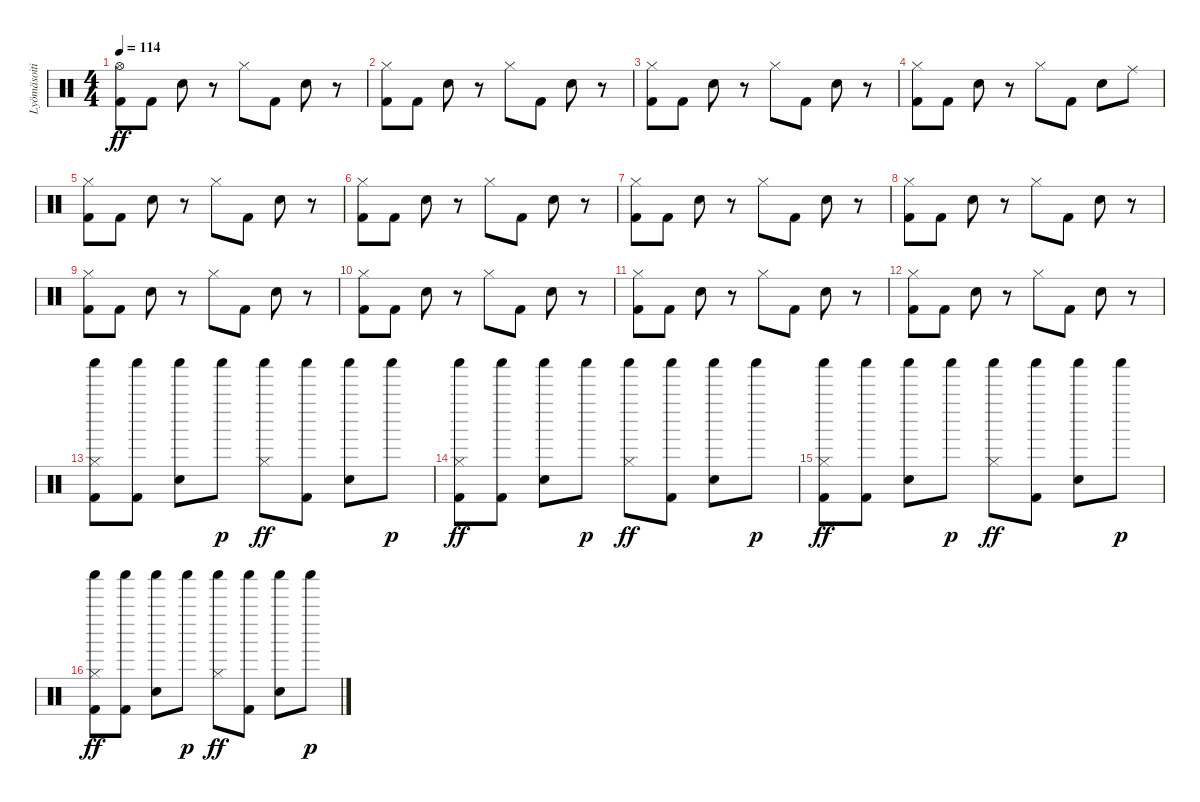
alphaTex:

\track ("Lyömäsoitin" "Lyömäsoiti") {instrument percussion}
\staff {score}
\articulation defaults
\ts (4 4)
\tempo 114
\clef neutral
\ks c
("Hi-Hat (open)" "Kick (hit) 2").8{dy ff} "Kick (hit) 2".8 "Electric Snare (hit)".8 r.8 "Hi-Hat (closed)".8 "Kick (hit) 2".8 "Electric Snare (hit)".8 r.8 |
("Hi-Hat (closed)" "Kick (hit) 2").8 "Kick (hit) 2".8 "Electric Snare (hit)".8 r.8 "Hi-Hat (closed)".8 "Kick (hit) 2".8 "Electric Snare (hit)".8 r.8 |
("Hi-Hat (closed)" "Kick (hit) 2").8 "Kick (hit) 2".8 "Electric Snare (hit)".8 r.8 "Hi-Hat (closed)".8 "Kick (hit) 2".8 "Electric Snare (hit)".8 r.8 |
("Hi-Hat (closed)" "Kick (hit) 2").8 "Kick (hit) 2".8 "Electric Snare (hit)".8 r.8 "Hi-Hat (closed)".8 "Kick (hit) 2".8 "Electric Snare (hit)".8 "Ride (middle)".8 |
("Hi-Hat (closed)" "Kick (hit) 2").8 "Kick (hit) 2".8 "Electric Snare (hit)".8 r.8 "Hi-Hat (closed)".8 "Kick (hit) 2".8 "Electric Snare (hit)".8 r.8 |
("Hi-Hat (closed)" "Kick (hit) 2").8 "Kick (hit) 2".8 "Electric Snare (hit)".8 r.8 "Hi-Hat (closed)".8 "Kick (hit) 2".8 "Electric Snare (hit)".8 r.8 |
("Hi-Hat (closed)" "Kick (hit) 2").8 "Kick (hit) 2".8 "Electric Snare (hit)".8 r.8 "Hi-Hat (closed)".8 "Kick (hit) 2".8 "Electric Snare (hit)".8 r.8 |
("Hi-Hat (closed)" "Kick (hit) 2").8 "Kick (hit) 2".8 "Electric Snare (hit)".8 r.8 "Hi-Hat (closed)".8 "Kick (hit) 2".8 "Electric Snare (hit)".8 r.8 |
("Hi-Hat (closed)" "Kick (hit) 2").8 "Kick (hit) 2".8 "Electric Snare (hit)".8 r.8 "Hi-Hat (closed)".8 "Kick (hit) 2".8 "Electric Snare (hit)".8 r.8 |
("Hi-Hat (closed)" "Kick (hit) 2").8 "Kick (hit) 2".8 "Electric Snare (hit)".8 r.8 "Hi-Hat (closed)".8 "Kick (hit) 2".8 "Electric Snare (hit)".8 r.8 |
("Hi-Hat (closed)" "Kick (hit) 2").8 "Kick (hit) 2".8 "Electric Snare (hit)".8 r.8 "Hi-Hat (closed)".8 "Kick (hit) 2".8 "Electric Snare (hit)".8 r.8 |
("Hi-Hat (closed)" "Kick (hit) 2").8 "Kick (hit) 2".8 "Electric Snare (hit)".8 r.8 "Hi-Hat (closed)".8 "Kick (hit) 2".8 "Electric Snare (hit)".8 r.8 |
("Shaker (hit)" "Hi-Hat (closed)" "Kick (hit) 2").8 ("Shaker (hit)" "Kick (hit) 2").8 ("Shaker (hit)" "Electric Snare (hit)").8 "Shaker (hit)".8{dy p} ("Shaker (hit)" "Hi-Hat (closed)").8{dy ff} ("Shaker (hit)" "Kick (hit) 2").8 ("Shaker (hit)" "Electric Snare (hit)").8 "Shaker (hit)".8{dy p} |
("Shaker (hit)" "Hi-Hat (closed)" "Kick (hit) 2").8{dy ff} ("Shaker (hit)" "Kick (hit) 2").8 ("Shaker (hit)" "Electric Snare (hit)").8 "Shaker (hit)".8{dy p} ("Shaker (hit)" "Hi-Hat (closed)").8{dy ff} ("Shaker (hit)" "Kick (hit) 2").8 ("Shaker (hit)" "Electric Snare (hit)").8 "Shaker (hit)".8{dy p} |
("Shaker (hit)" "Hi-Hat (closed)" "Kick (hit) 2").8{dy ff} ("Shaker (hit)" "Kick (hit) 2").8 ("Shaker (hit)" "Electric Snare (hit)").8 "Shaker (hit)".8{dy p} ("Shaker (hit)" "Hi-Hat (closed)").8{dy ff} ("Shaker (hit)" "Kick (hit) 2").8 ("Shaker (hit)" "Electric Snare (hit)").8 "Shaker (hit)".8{dy p} |
("Shaker (hit)" "Hi-Hat (closed)" "Kick (hit) 2").8{dy ff} ("Shaker (hit)" "Kick (hit) 2").8 ("Shaker (hit)" "Electric Snare (hit)").8 "Shaker (hit)".8{dy p} ("Shaker (hit)" "Hi-Hat (closed)").8{dy ff} ("Shaker (hit)" "Kick (hit) 2").8 ("Shaker (hit)" "Electric Snare (hit)").8 "Shaker (hit)".8{dy p}
